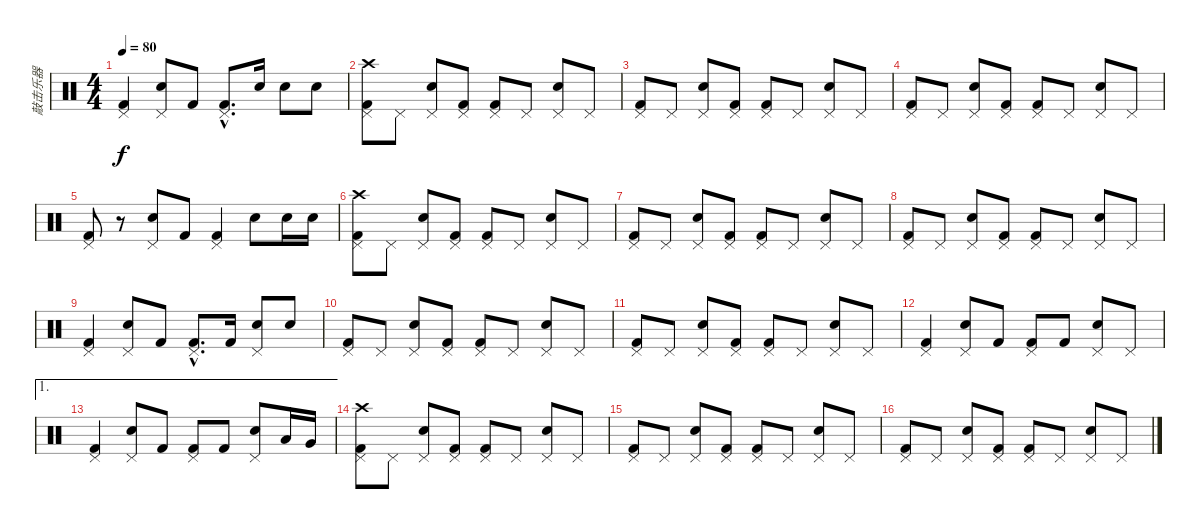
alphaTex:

\track ("敲击乐器" "敲击乐器") {instrument percussion}
\staff {score}
\articulation defaults
\ts (4 4)
\tempo 80
\clef neutral
\ks c
("Pedal Hi-Hat (hit)" "Kick (hit) 2").4{dy f} ("Pedal Hi-Hat (hit)" "Metronome (bell)").8 "Kick (hit) 2".8 ("Pedal Hi-Hat (hit)"{hac} "Kick (hit) 2"{hac}).8{d} "Metronome (bell)".16 "Metronome (bell)".8 "Metronome (bell)".8 |
("Crash high (hit)" "Pedal Hi-Hat (hit)" "Kick (hit) 2").8 "Pedal Hi-Hat (hit)".8 ("Pedal Hi-Hat (hit)" "Metronome (bell)").8 ("Pedal Hi-Hat (hit)" "Kick (hit) 2").8 ("Pedal Hi-Hat (hit)" "Kick (hit) 2").8 "Pedal Hi-Hat (hit)".8 ("Pedal Hi-Hat (hit)" "Metronome (bell)").8 "Pedal Hi-Hat (hit)".8 |
("Pedal Hi-Hat (hit)" "Kick (hit) 2").8 "Pedal Hi-Hat (hit)".8 ("Pedal Hi-Hat (hit)" "Metronome (bell)").8 ("Pedal Hi-Hat (hit)" "Kick (hit) 2").8 ("Pedal Hi-Hat (hit)" "Kick (hit) 2").8 "Pedal Hi-Hat (hit)".8 ("Pedal Hi-Hat (hit)" "Metronome (bell)").8 "Pedal Hi-Hat (hit)".8 |
("Pedal Hi-Hat (hit)" "Kick (hit) 2").8 "Pedal Hi-Hat (hit)".8 ("Pedal Hi-Hat (hit)" "Metronome (bell)").8 ("Pedal Hi-Hat (hit)" "Kick (hit) 2").8 ("Pedal Hi-Hat (hit)" "Kick (hit) 2").8 "Pedal Hi-Hat (hit)".8 ("Pedal Hi-Hat (hit)" "Metronome (bell)").8 "Pedal Hi-Hat (hit)".8 |
("Pedal Hi-Hat (hit)" "Kick (hit) 2").8 r.8 ("Pedal Hi-Hat (hit)" "Metronome (bell)").8 "Kick (hit) 2".8 ("Pedal Hi-Hat (hit)" "Kick (hit) 2").4 "Metronome (bell)".8 "Metronome (bell)".16 "Metronome (bell)".16 |
("Crash high (hit)" "Pedal Hi-Hat (hit)" "Kick (hit) 2").8 "Pedal Hi-Hat (hit)".8 ("Pedal Hi-Hat (hit)" "Metronome (bell)").8 ("Pedal Hi-Hat (hit)" "Kick (hit) 2").8 ("Pedal Hi-Hat (hit)" "Kick (hit) 2").8 "Pedal Hi-Hat (hit)".8 ("Pedal Hi-Hat (hit)" "Metronome (bell)").8 "Pedal Hi-Hat (hit)".8 |
("Pedal Hi-Hat (hit)" "Kick (hit) 2").8 "Pedal Hi-Hat (hit)".8 ("Pedal Hi-Hat (hit)" "Metronome (bell)").8 ("Pedal Hi-Hat (hit)" "Kick (hit) 2").8 ("Pedal Hi-Hat (hit)" "Kick (hit) 2").8 "Pedal Hi-Hat (hit)".8 ("Pedal Hi-Hat (hit)" "Metronome (bell)").8 "Pedal Hi-Hat (hit)".8 |
("Pedal Hi-Hat (hit)" "Kick (hit) 2").8 "Pedal Hi-Hat (hit)".8 ("Pedal Hi-Hat (hit)" "Metronome (bell)").8 ("Pedal Hi-Hat (hit)" "Kick (hit) 2").8 ("Pedal Hi-Hat (hit)" "Kick (hit) 2").8 "Pedal Hi-Hat (hit)".8 ("Pedal Hi-Hat (hit)" "Metronome (bell)").8 "Pedal Hi-Hat (hit)".8 |
("Pedal Hi-Hat (hit)" "Kick (hit) 2").4 ("Pedal Hi-Hat (hit)" "Metronome (bell)").8 "Kick (hit) 2".8 ("Pedal Hi-Hat (hit)"{hac} "Kick (hit) 2"{hac}).8{d} "Kick (hit) 2".16 ("Pedal Hi-Hat (hit)" "Metronome (bell)").8 "Metronome (bell)".8 |
("Pedal Hi-Hat (hit)" "Kick (hit) 2").8 "Pedal Hi-Hat (hit)".8 ("Pedal Hi-Hat (hit)" "Metronome (bell)").8 ("Pedal Hi-Hat (hit)" "Kick (hit) 2").8 ("Pedal Hi-Hat (hit)" "Kick (hit) 2").8 "Pedal Hi-Hat (hit)".8 ("Pedal Hi-Hat (hit)" "Metronome (bell)").8 "Pedal Hi-Hat (hit)".8 |
("Pedal Hi-Hat (hit)" "Kick (hit) 2").8 "Pedal Hi-Hat (hit)".8 ("Pedal Hi-Hat (hit)" "Metronome (bell)").8 ("Pedal Hi-Hat (hit)" "Kick (hit) 2").8 ("Pedal Hi-Hat (hit)" "Kick (hit) 2").8 "Pedal Hi-Hat (hit)".8 ("Pedal Hi-Hat (hit)" "Metronome (bell)").8 "Pedal Hi-Hat (hit)".8 |
("Pedal Hi-Hat (hit)" "Kick (hit) 2").4 ("Pedal Hi-Hat (hit)" "Metronome (bell)").8 "Kick (hit) 2".8 ("Pedal Hi-Hat (hit)" "Kick (hit) 2").8 "Kick (hit) 2".8 ("Pedal Hi-Hat (hit)" "Metronome (bell)").8 "Pedal Hi-Hat (hit)".8 |
\ae 1
("Pedal Hi-Hat (hit)" "Kick (hit) 2").4 ("Pedal Hi-Hat (hit)" "Metronome (bell)").8 "Kick (hit) 2".8 ("Pedal Hi-Hat (hit)" "Kick (hit) 2").8 "Kick (hit) 2".8 ("Pedal Hi-Hat (hit)" "Metronome (bell)").8 "Low Tom (hit)".16 "Very Low Tom (hit)".16 |
("Crash high (hit)" "Pedal Hi-Hat (hit)" "Kick (hit) 2").8 "Pedal Hi-Hat (hit)".8 ("Pedal Hi-Hat (hit)" "Metronome (bell)").8 ("Pedal Hi-Hat (hit)" "Kick (hit) 2").8 ("Pedal Hi-Hat (hit)" "Kick (hit) 2").8 "Pedal Hi-Hat (hit)".8 ("Pedal Hi-Hat (hit)" "Metronome (bell)").8 "Pedal Hi-Hat (hit)".8 |
("Pedal Hi-Hat (hit)" "Kick (hit) 2").8 "Pedal Hi-Hat (hit)".8 ("Pedal Hi-Hat (hit)" "Metronome (bell)").8 ("Pedal Hi-Hat (hit)" "Kick (hit) 2").8 ("Pedal Hi-Hat (hit)" "Kick (hit) 2").8 "Pedal Hi-Hat (hit)".8 ("Pedal Hi-Hat (hit)" "Metronome (bell)").8 "Pedal Hi-Hat (hit)".8 |
("Pedal Hi-Hat (hit)" "Kick (hit) 2").8 "Pedal Hi-Hat (hit)".8 ("Pedal Hi-Hat (hit)" "Metronome (bell)").8 ("Pedal Hi-Hat (hit)" "Kick (hit) 2").8 ("Pedal Hi-Hat (hit)" "Kick (hit) 2").8 "Pedal Hi-Hat (hit)".8 ("Pedal Hi-Hat (hit)" "Metronome (bell)").8 "Pedal Hi-Hat (hit)".8
